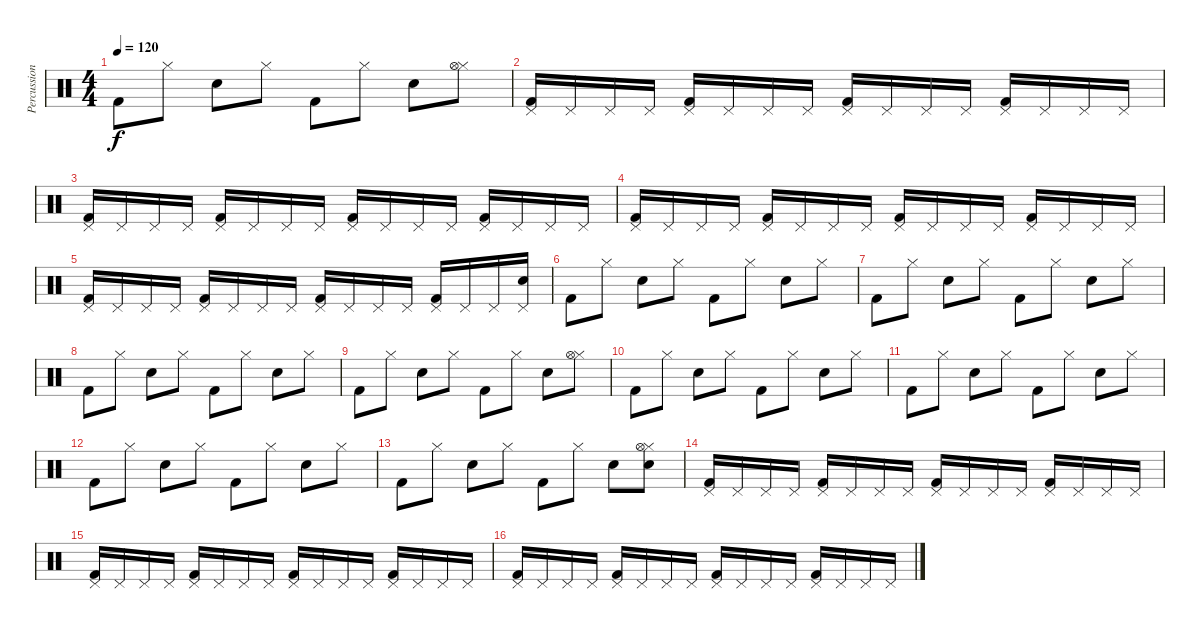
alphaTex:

\track ("Percussions" "Percussion") {instrument percussion}
\staff {score}
\articulation defaults
\ts (4 4)
\tempo 120
\clef neutral
\ks c "Kick (hit) 2".8{dy f} "Hi-Hat (closed)".8 "Snare (hit) 2".8 "Hi-Hat (closed)".8 "Kick (hit) 2".8 "Hi-Hat (closed)".8 "Snare (hit) 2".8
("Hi-Hat (closed)" "Hi-Hat (open)").8 |
("Pedal Hi-Hat (hit)" "Kick (hit) 2").16 "Pedal Hi-Hat (hit)".16 "Pedal Hi-Hat (hit)".16 "Pedal Hi-Hat (hit)".16 ("Pedal Hi-Hat (hit)" "Kick (hit) 2").16 "Pedal Hi-Hat (hit)".16 "Pedal Hi-Hat (hit)".16 "Pedal Hi-Hat (hit)".16 ("Pedal Hi-Hat (hit)" "Kick (hit) 2").16 "Pedal Hi-Hat (hit)".16 "Pedal Hi-Hat (hit)".16 "Pedal Hi-Hat (hit)".16 ("Pedal Hi-Hat (hit)" "Kick (hit) 2").16 "Pedal Hi-Hat (hit)".16 "Pedal Hi-Hat (hit)".16 "Pedal Hi-Hat (hit)".16 |
("Pedal Hi-Hat (hit)" "Kick (hit) 2").16 "Pedal Hi-Hat (hit)".16 "Pedal Hi-Hat (hit)".16 "Pedal Hi-Hat (hit)".16 ("Pedal Hi-Hat (hit)" "Kick (hit) 2").16 "Pedal Hi-Hat (hit)".16 "Pedal Hi-Hat (hit)".16 "Pedal Hi-Hat (hit)".16 ("Pedal Hi-Hat (hit)" "Kick (hit) 2").16 "Pedal Hi-Hat (hit)".16 "Pedal Hi-Hat (hit)".16 "Pedal Hi-Hat (hit)".16 ("Pedal Hi-Hat (hit)" "Kick (hit) 2").16 "Pedal Hi-Hat (hit)".16 "Pedal Hi-Hat (hit)".16 "Pedal Hi-Hat (hit)".16 |
("Pedal Hi-Hat (hit)" "Kick (hit) 2").16 "Pedal Hi-Hat (hit)".16 "Pedal Hi-Hat (hit)".16 "Pedal Hi-Hat (hit)".16 ("Pedal Hi-Hat (hit)" "Kick (hit) 2").16 "Pedal Hi-Hat (hit)".16 "Pedal Hi-Hat (hit)".16 "Pedal Hi-Hat (hit)".16 ("Pedal Hi-Hat (hit)" "Kick (hit) 2").16 "Pedal Hi-Hat (hit)".16 "Pedal Hi-Hat (hit)".16 "Pedal Hi-Hat (hit)".16 ("Pedal Hi-Hat (hit)" "Kick (hit) 2").16 "Pedal Hi-Hat (hit)".16 "Pedal Hi-Hat (hit)".16 "Pedal Hi-Hat (hit)".16 |
("Pedal Hi-Hat (hit)" "Kick (hit) 2").16 "Pedal Hi-Hat (hit)".16 "Pedal Hi-Hat (hit)".16 "Pedal Hi-Hat (hit)".16 ("Pedal Hi-Hat (hit)" "Kick (hit) 2").16 "Pedal Hi-Hat (hit)".16 "Pedal Hi-Hat (hit)".16 "Pedal Hi-Hat (hit)".16 ("Pedal Hi-Hat (hit)" "Kick (hit) 2").16 "Pedal Hi-Hat (hit)".16 "Pedal Hi-Hat (hit)".16 "Pedal Hi-Hat (hit)".16 ("Pedal Hi-Hat (hit)" "Kick (hit) 2").16 "Pedal Hi-Hat (hit)".16 "Pedal Hi-Hat (hit)".16 ("Pedal Hi-Hat (hit)" "Snare (hit) 2").16 |
"Kick (hit) 2".8 "Hi-Hat (closed)".8 "Snare (hit) 2".8 "Hi-Hat (closed)".8 "Kick (hit) 2".8 "Hi-Hat (closed)".8 "Snare (hit) 2".8 "Hi-Hat (closed)".8 |
"Kick (hit) 2".8 "Hi-Hat (closed)".8 "Snare (hit) 2".8 "Hi-Hat (closed)".8 "Kick (hit) 2".8 "Hi-Hat (closed)".8 "Snare (hit) 2".8 "Hi-Hat (closed)".8 |
"Kick (hit) 2".8 "Hi-Hat (closed)".8 "Snare (hit) 2".8 "Hi-Hat (closed)".8 "Kick (hit) 2".8 "Hi-Hat (closed)".8 "Snare (hit) 2".8 "Hi-Hat (closed)".8 |
"Kick (hit) 2".8 "Hi-Hat (closed)".8 "Snare (hit) 2".8 "Hi-Hat (closed)".8 "Kick (hit) 2".8 "Hi-Hat (closed)".8 "Snare (hit) 2".8 ("Hi-Hat (closed)" "Hi-Hat (open)").8 |
"Kick (hit) 2".8 "Hi-Hat (closed)".8 "Snare (hit) 2".8 "Hi-Hat (closed)".8 "Kick (hit) 2".8 "Hi-Hat (closed)".8 "Snare (hit) 2".8 "Hi-Hat (closed)".8 |
"Kick (hit) 2".8 "Hi-Hat (closed)".8 "Snare (hit) 2".8 "Hi-Hat (closed)".8 "Kick (hit) 2".8 "Hi-Hat (closed)".8 "Snare (hit) 2".8 "Hi-Hat (closed)".8 |
"Kick (hit) 2".8 "Hi-Hat (closed)".8 "Snare (hit) 2".8 "Hi-Hat (closed)".8 "Kick (hit) 2".8 "Hi-Hat (closed)".8 "Snare (hit) 2".8 "Hi-Hat (closed)".8 |
"Kick (hit) 2".8 "Hi-Hat (closed)".8 "Snare (hit) 2".8 "Hi-Hat (closed)".8 "Kick (hit) 2".8 "Hi-Hat (closed)".8 "Snare (hit) 2".8 ("Hi-Hat (closed)" "Hi-Hat (open)" "Snare (hit) 2").8 |
("Pedal Hi-Hat (hit)" "Kick (hit) 2").16 "Pedal Hi-Hat (hit)".16 "Pedal Hi-Hat (hit)".16 "Pedal Hi-Hat (hit)".16 ("Pedal Hi-Hat (hit)" "Kick (hit) 2").16 "Pedal Hi-Hat (hit)".16 "Pedal Hi-Hat (hit)".16 "Pedal Hi-Hat (hit)".16 ("Pedal Hi-Hat (hit)" "Kick (hit) 2").16 "Pedal Hi-Hat (hit)".16 "Pedal Hi-Hat (hit)".16 "Pedal Hi-Hat (hit)".16 ("Pedal Hi-Hat (hit)" "Kick (hit) 2").16 "Pedal Hi-Hat (hit)".16 "Pedal Hi-Hat (hit)".16 "Pedal Hi-Hat (hit)".16 |
("Pedal Hi-Hat (hit)" "Kick (hit) 2").16 "Pedal Hi-Hat (hit)".16 "Pedal Hi-Hat (hit)".16 "Pedal Hi-Hat (hit)".16 ("Pedal Hi-Hat (hit)" "Kick (hit) 2").16 "Pedal Hi-Hat (hit)".16 "Pedal Hi-Hat (hit)".16 "Pedal Hi-Hat (hit)".16 ("Pedal Hi-Hat (hit)" "Kick (hit) 2").16 "Pedal Hi-Hat (hit)".16 "Pedal Hi-Hat (hit)".16 "Pedal Hi-Hat (hit)".16 ("Pedal Hi-Hat (hit)" "Kick (hit) 2").16 "Pedal Hi-Hat (hit)".16 "Pedal Hi-Hat (hit)".16 "Pedal Hi-Hat (hit)".16 |
("Pedal Hi-Hat (hit)" "Kick (hit) 2").16 "Pedal Hi-Hat (hit)".16 "Pedal Hi-Hat (hit)".16 "Pedal Hi-Hat (hit)".16 ("Pedal Hi-Hat (hit)" "Kick (hit) 2").16 "Pedal Hi-Hat (hit)".16 "Pedal Hi-Hat (hit)".16 "Pedal Hi-Hat (hit)".16 ("Pedal Hi-Hat (hit)" "Kick (hit) 2").16 "Pedal Hi-Hat (hit)".16 "Pedal Hi-Hat (hit)".16 "Pedal Hi-Hat (hit)".16 ("Pedal Hi-Hat (hit)" "Kick (hit) 2").16 "Pedal Hi-Hat (hit)".16 "Pedal Hi-Hat (hit)".16 "Pedal Hi-Hat (hit)".16
